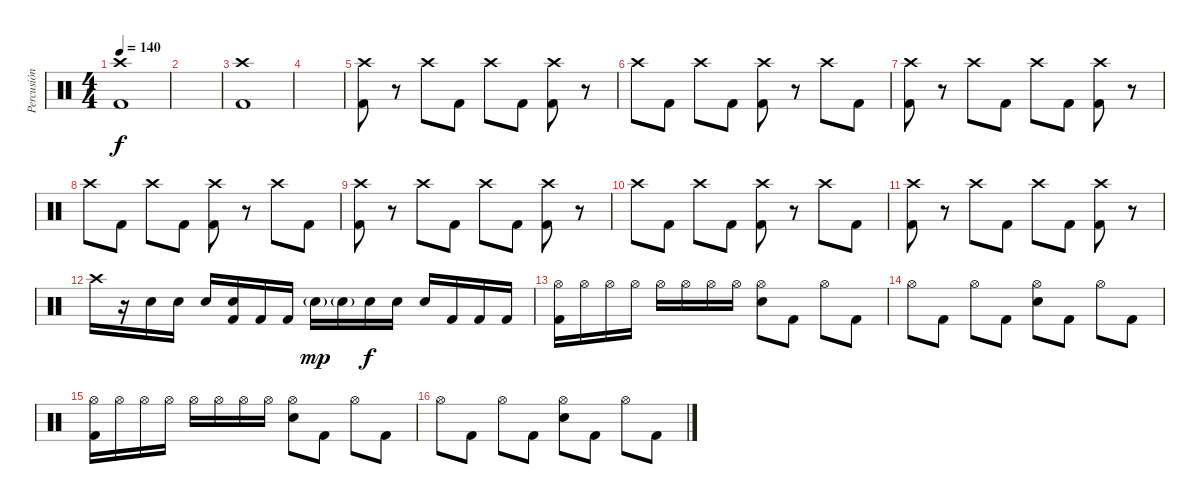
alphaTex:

\track ("Percusión" "Percusión") {instrument percussion}
\staff {score}
\articulation defaults
\ts (4 4)
\tempo 140
\clef neutral
\ks c
("Crash high (hit)" "Kick (hit) 2").1{dy f} |
|
("Crash high (hit)" "Kick (hit) 2").1 |
|
("Crash high (hit)" "Kick (hit) 2").8 r.8 "Crash high (hit)".8 "Kick (hit) 2".8 "Crash high (hit)".8 "Kick (hit) 2".8 ("Crash high (hit)" "Kick (hit) 2").8 r.8 |
"Crash high (hit)".8 "Kick (hit) 2".8 "Crash high (hit)".8 "Kick (hit) 2".8 ("Crash high (hit)" "Kick (hit) 2").8 r.8 "Crash high (hit)".8 "Kick (hit) 2".8 |
("Crash high (hit)" "Kick (hit) 2").8 r.8 "Crash high (hit)".8 "Kick (hit) 2".8 "Crash high (hit)".8 "Kick (hit) 2".8 ("Crash high (hit)" "Kick (hit) 2").8 r.8 |
"Crash high (hit)".8 "Kick (hit) 2".8 "Crash high (hit)".8 "Kick (hit) 2".8 ("Crash high (hit)" "Kick (hit) 2").8 r.8 "Crash high (hit)".8 "Kick (hit) 2".8 |
("Crash high (hit)" "Kick (hit) 2").8 r.8 "Crash high (hit)".8 "Kick (hit) 2".8 "Crash high (hit)".8 "Kick (hit) 2".8 ("Crash high (hit)" "Kick (hit) 2").8 r.8 |
"Crash high (hit)".8 "Kick (hit) 2".8 "Crash high (hit)".8 "Kick (hit) 2".8 ("Crash high (hit)" "Kick (hit) 2").8 r.8 "Crash high (hit)".8 "Kick (hit) 2".8 |
("Crash high (hit)" "Kick (hit) 2").8 r.8 "Crash high (hit)".8 "Kick (hit) 2".8 "Crash high (hit)".8 "Kick (hit) 2".8 ("Crash high (hit)" "Kick (hit) 2").8 r.8 |
"Crash high (hit)".16 r.16 "Electric Snare (hit)".16 "Electric Snare (hit)".16 "Electric Snare (hit)".16 ("Electric Snare (hit)" "Kick (hit) 2").16 "Kick (hit) 2".16 "Kick (hit) 2".16 "Electric Snare (hit)"{g}.16{dy mp} "Electric Snare (hit)"{g}.16 "Electric Snare (hit)".16{dy f} "Electric Snare (hit)".16 "Electric Snare (hit)".16 "Kick (hit) 2".16 "Kick (hit) 2".16 "Kick (hit) 2".16 |
("Hi-Hat (open)" "Kick (hit) 2").16 "Hi-Hat (open)".16 "Hi-Hat (open)".16 "Hi-Hat (open)".16 "Hi-Hat (open)".16 "Hi-Hat (open)".16 "Hi-Hat (open)".16 "Hi-Hat (open)".16 ("Hi-Hat (open)" "Electric Snare (hit)").8 "Kick (hit) 2".8 "Hi-Hat (open)".8 "Kick (hit) 2".8 |
"Hi-Hat (open)".8 "Kick (hit) 2".8 "Hi-Hat (open)".8 "Kick (hit) 2".8 ("Hi-Hat (open)" "Electric Snare (hit)").8 "Kick (hit) 2".8 "Hi-Hat (open)".8 "Kick (hit) 2".8 |
("Hi-Hat (open)" "Kick (hit) 2").16 "Hi-Hat (open)".16 "Hi-Hat (open)".16 "Hi-Hat (open)".16 "Hi-Hat (open)".16 "Hi-Hat (open)".16 "Hi-Hat (open)".16 "Hi-Hat (open)".16 ("Hi-Hat (open)" "Electric Snare (hit)").8 "Kick (hit) 2".8 "Hi-Hat (open)".8 "Kick (hit) 2".8 |
"Hi-Hat (open)".8 "Kick (hit) 2".8 "Hi-Hat (open)".8 "Kick (hit) 2".8 ("Hi-Hat (open)" "Electric Snare (hit)").8 "Kick (hit) 2".8 "Hi-Hat (open)".8 "Kick (hit) 2".8
